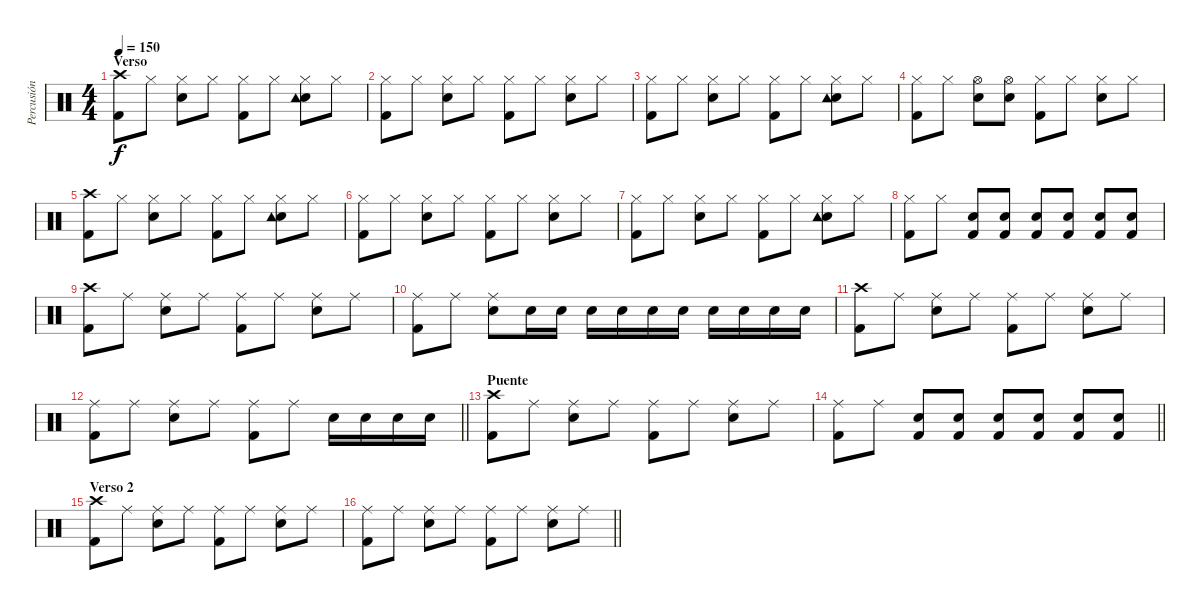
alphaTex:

\track ("Percusión" "Percusión") {instrument percussion}
\staff {score}
\articulation defaults
\ts (4 4)
\section ("" "Verso")
\tempo 150
\clef neutral
\ks c
("Crash high (hit)" "Kick (hit) 2").8{dy f} "Hi-Hat (closed)".8 ("Hi-Hat (closed)" "Snare (hit) 2").8 "Hi-Hat (closed)".8 ("Hi-Hat (closed)" "Kick (hit) 2").8 "Hi-Hat (closed)".8 ("Hi-Hat (closed)" "Snare (hit) 2" "Tambourine (hit)").8 "Hi-Hat (closed)".8 |
("Hi-Hat (closed)" "Kick (hit) 2").8 "Hi-Hat (closed)".8 ("Hi-Hat (closed)" "Snare (hit) 2").8 "Hi-Hat (closed)".8 ("Hi-Hat (closed)" "Kick (hit) 2").8 "Hi-Hat (closed)".8 ("Hi-Hat (closed)" "Snare (hit) 2").8 "Hi-Hat (closed)".8 |
("Hi-Hat (closed)" "Kick (hit) 2").8 "Hi-Hat (closed)".8 ("Hi-Hat (closed)" "Snare (hit) 2").8 "Hi-Hat (closed)".8 ("Hi-Hat (closed)" "Kick (hit) 2").8 "Hi-Hat (closed)".8 ("Hi-Hat (closed)" "Snare (hit) 2" "Tambourine (hit)").8 "Hi-Hat (closed)".8 |
("Hi-Hat (closed)" "Kick (hit) 2").8 "Hi-Hat (closed)".8 ("Hi-Hat (open)" "Snare (hit) 2").8 ("Hi-Hat (open)" "Snare (hit) 2").8 ("Hi-Hat (closed)" "Kick (hit) 2").8 "Hi-Hat (closed)".8 ("Hi-Hat (closed)" "Snare (hit) 2").8 "Hi-Hat (closed)".8 |
("Crash high (hit)" "Kick (hit) 2").8 "Hi-Hat (closed)".8 ("Hi-Hat (closed)" "Snare (hit) 2").8 "Hi-Hat (closed)".8 ("Hi-Hat (closed)" "Kick (hit) 2").8 "Hi-Hat (closed)".8 ("Hi-Hat (closed)" "Snare (hit) 2" "Tambourine (hit)").8 "Hi-Hat (closed)".8 |
("Hi-Hat (closed)" "Kick (hit) 2").8 "Hi-Hat (closed)".8 ("Hi-Hat (closed)" "Snare (hit) 2").8 "Hi-Hat (closed)".8 ("Hi-Hat (closed)" "Kick (hit) 2").8 "Hi-Hat (closed)".8 ("Hi-Hat (closed)" "Snare (hit) 2").8 "Hi-Hat (closed)".8 |
("Hi-Hat (closed)" "Kick (hit) 2").8 "Hi-Hat (closed)".8 ("Hi-Hat (closed)" "Snare (hit) 2").8 "Hi-Hat (closed)".8 ("Hi-Hat (closed)" "Kick (hit) 2").8 "Hi-Hat (closed)".8 ("Hi-Hat (closed)" "Snare (hit) 2" "Tambourine (hit)").8 "Hi-Hat (closed)".8 |
("Hi-Hat (closed)" "Kick (hit) 2").8 "Hi-Hat (closed)".8 ("Kick (hit) 2" "Snare (hit) 2").8 ("Kick (hit) 2" "Snare (hit) 2").8 ("Kick (hit) 2" "Snare (hit) 2").8 ("Kick (hit) 2" "Snare (hit) 2").8 ("Kick (hit) 2" "Snare (hit) 2").8 ("Kick (hit) 2" "Snare (hit) 2").8 |
("Crash high (hit)" "Kick (hit) 2").8 "Ride (middle)".8 ("Ride (middle)" "Snare (hit) 2").8 "Ride (middle)".8 ("Ride (middle)" "Kick (hit) 2").8 "Ride (middle)".8 ("Ride (middle)" "Snare (hit) 2").8 "Ride (middle)".8 |
("Ride (middle)" "Kick (hit) 2").8 "Ride (middle)".8 ("Ride (middle)" "Snare (hit) 2").8 "Snare (hit) 2".16 "Snare (hit) 2".16 "Snare (hit) 2".16 "Snare (hit) 2".16 "Snare (hit) 2".16 "Snare (hit) 2".16 "Snare (hit) 2".16 "Snare (hit) 2".16 "Snare (hit) 2".16 "Snare (hit) 2".16 |
("Crash high (hit)" "Kick (hit) 2").8 "Ride (middle)".8 ("Ride (middle)" "Snare (hit) 2").8 "Ride (middle)".8 ("Ride (middle)" "Kick (hit) 2").8 "Ride (middle)".8 ("Ride (middle)" "Snare (hit) 2").8 "Ride (middle)".8 |
\barLineRight lightlight
("Ride (middle)" "Kick (hit) 2").8 "Ride (middle)".8 ("Ride (middle)" "Snare (hit) 2").8 "Ride (middle)".8 ("Ride (middle)" "Kick (hit) 2").8 "Ride (middle)".8 "Snare (hit) 2".16 "Snare (hit) 2".16 "Snare (hit) 2".16 "Snare (hit) 2".16 |
\section ("" "Puente")
("Crash high (hit)" "Kick (hit) 2").8 "Ride (middle)".8 ("Ride (middle)" "Snare (hit) 2").8 "Ride (middle)".8 ("Ride (middle)" "Kick (hit) 2").8 "Ride (middle)".8 ("Ride (middle)" "Snare (hit) 2").8 "Ride (middle)".8 |
\barLineRight lightlight
("Ride (middle)" "Kick (hit) 2").8 "Ride (middle)".8 ("Kick (hit) 2" "Snare (hit) 2").8 ("Kick (hit) 2" "Snare (hit) 2").8 ("Kick (hit) 2" "Snare (hit) 2").8 ("Kick (hit) 2" "Snare (hit) 2").8 ("Kick (hit) 2" "Snare (hit) 2").8 ("Kick (hit) 2" "Snare (hit) 2").8 |
\section ("" "Verso 2")
("Crash high (hit)" "Kick (hit) 2").8 "Ride (middle)".8 ("Ride (middle)" "Snare (hit) 2").8 "Ride (middle)".8 ("Ride (middle)" "Kick (hit) 2").8 "Ride (middle)".8 ("Ride (middle)" "Snare (hit) 2").8 "Ride (middle)".8 |
\barLineRight lightlight
("Ride (middle)" "Kick (hit) 2").8 "Ride (middle)".8 ("Ride (middle)" "Snare (hit) 2").8 "Ride (middle)".8 ("Ride (middle)" "Kick (hit) 2").8 "Ride (middle)".8 ("Ride (middle)" "Snare (hit) 2").8 "Ride (middle)".8
